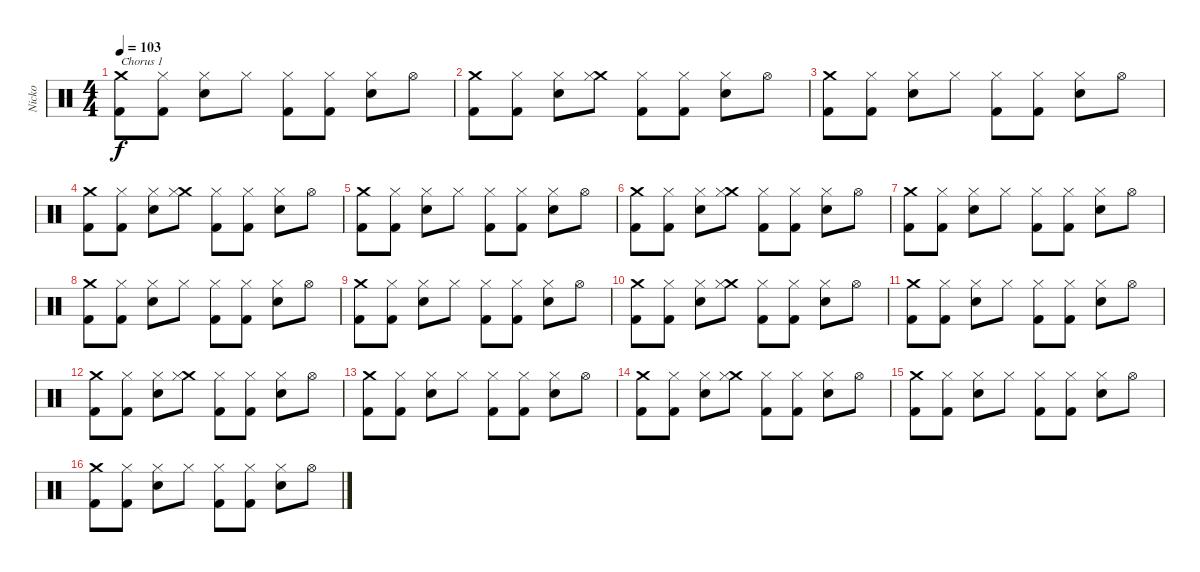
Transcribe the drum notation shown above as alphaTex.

\track ("Nicko" "Nicko") {instrument percussion}
\staff {score}
\articulation defaults
\ts (4 4)
\tempo 103
\clef neutral
\ks c
("Crash medium (hit)" "Kick (hit) 2").8{txt "Chorus 1" dy f} ("Hi-Hat (closed)" "Kick (hit) 2").8 ("Hi-Hat (closed)" "Snare (hit) 2").8 "Hi-Hat (closed)".8 ("Hi-Hat (closed)" "Kick (hit) 2").8 ("Hi-Hat (closed)" "Kick (hit) 2").8 ("Hi-Hat (closed)" "Snare (hit) 2").8 "Hi-Hat (open)".8 |
("Crash medium (hit)" "Kick (hit) 2").8 ("Hi-Hat (closed)" "Kick (hit) 2").8 ("Hi-Hat (closed)" "Snare (hit) 2").8 ("Crash medium (hit)" "Hi-Hat (closed)").8 ("Hi-Hat (closed)" "Kick (hit) 2").8 ("Hi-Hat (closed)" "Kick (hit) 2").8 ("Hi-Hat (closed)" "Snare (hit) 2").8 "Hi-Hat (open)".8 |
("Crash medium (hit)" "Kick (hit) 2").8 ("Hi-Hat (closed)" "Kick (hit) 2").8 ("Hi-Hat (closed)" "Snare (hit) 2").8 "Hi-Hat (closed)".8 ("Hi-Hat (closed)" "Kick (hit) 2").8 ("Hi-Hat (closed)" "Kick (hit) 2").8 ("Hi-Hat (closed)" "Snare (hit) 2").8 "Hi-Hat (open)".8 |
("Crash medium (hit)" "Kick (hit) 2").8 ("Hi-Hat (closed)" "Kick (hit) 2").8 ("Hi-Hat (closed)" "Snare (hit) 2").8 ("Crash medium (hit)" "Hi-Hat (closed)").8 ("Hi-Hat (closed)" "Kick (hit) 2").8 ("Hi-Hat (closed)" "Kick (hit) 2").8 ("Hi-Hat (closed)" "Snare (hit) 2").8 "Hi-Hat (open)".8 |
("Crash medium (hit)" "Kick (hit) 2").8 ("Hi-Hat (closed)" "Kick (hit) 2").8 ("Hi-Hat (closed)" "Snare (hit) 2").8 "Hi-Hat (closed)".8 ("Hi-Hat (closed)" "Kick (hit) 2").8 ("Hi-Hat (closed)" "Kick (hit) 2").8 ("Hi-Hat (closed)" "Snare (hit) 2").8 "Hi-Hat (open)".8 |
("Crash medium (hit)" "Kick (hit) 2").8 ("Hi-Hat (closed)" "Kick (hit) 2").8 ("Hi-Hat (closed)" "Snare (hit) 2").8 ("Crash medium (hit)" "Hi-Hat (closed)").8 ("Hi-Hat (closed)" "Kick (hit) 2").8 ("Hi-Hat (closed)" "Kick (hit) 2").8 ("Hi-Hat (closed)" "Snare (hit) 2").8 "Hi-Hat (open)".8 |
("Crash medium (hit)" "Kick (hit) 2").8 ("Hi-Hat (closed)" "Kick (hit) 2").8 ("Hi-Hat (closed)" "Snare (hit) 2").8 "Hi-Hat (closed)".8 ("Hi-Hat (closed)" "Kick (hit) 2").8 ("Hi-Hat (closed)" "Kick (hit) 2").8 ("Hi-Hat (closed)" "Snare (hit) 2").8 "Hi-Hat (open)".8 |
("Crash medium (hit)" "Kick (hit) 2").8 ("Hi-Hat (closed)" "Kick (hit) 2").8 ("Hi-Hat (closed)" "Snare (hit) 2").8 "Hi-Hat (closed)".8 ("Hi-Hat (closed)" "Kick (hit) 2").8 ("Hi-Hat (closed)" "Kick (hit) 2").8 ("Hi-Hat (closed)" "Snare (hit) 2").8 "Hi-Hat (open)".8 |
("Crash medium (hit)" "Kick (hit) 2").8 ("Hi-Hat (closed)" "Kick (hit) 2").8 ("Hi-Hat (closed)" "Snare (hit) 2").8 "Hi-Hat (closed)".8 ("Hi-Hat (closed)" "Kick (hit) 2").8 ("Hi-Hat (closed)" "Kick (hit) 2").8 ("Hi-Hat (closed)" "Snare (hit) 2").8 "Hi-Hat (open)".8 |
("Crash medium (hit)" "Kick (hit) 2").8 ("Hi-Hat (closed)" "Kick (hit) 2").8 ("Hi-Hat (closed)" "Snare (hit) 2").8 ("Crash medium (hit)" "Hi-Hat (closed)").8 ("Hi-Hat (closed)" "Kick (hit) 2").8 ("Hi-Hat (closed)" "Kick (hit) 2").8 ("Hi-Hat (closed)" "Snare (hit) 2").8 "Hi-Hat (open)".8 |
("Crash medium (hit)" "Kick (hit) 2").8 ("Hi-Hat (closed)" "Kick (hit) 2").8 ("Hi-Hat (closed)" "Snare (hit) 2").8 "Hi-Hat (closed)".8 ("Hi-Hat (closed)" "Kick (hit) 2").8 ("Hi-Hat (closed)" "Kick (hit) 2").8 ("Hi-Hat (closed)" "Snare (hit) 2").8 "Hi-Hat (open)".8 |
("Crash medium (hit)" "Kick (hit) 2").8 ("Hi-Hat (closed)" "Kick (hit) 2").8 ("Hi-Hat (closed)" "Snare (hit) 2").8 ("Crash medium (hit)" "Hi-Hat (closed)").8 ("Hi-Hat (closed)" "Kick (hit) 2").8 ("Hi-Hat (closed)" "Kick (hit) 2").8 ("Hi-Hat (closed)" "Snare (hit) 2").8 "Hi-Hat (open)".8 |
("Crash medium (hit)" "Kick (hit) 2").8 ("Hi-Hat (closed)" "Kick (hit) 2").8 ("Hi-Hat (closed)" "Snare (hit) 2").8 "Hi-Hat (closed)".8 ("Hi-Hat (closed)" "Kick (hit) 2").8 ("Hi-Hat (closed)" "Kick (hit) 2").8 ("Hi-Hat (closed)" "Snare (hit) 2").8 "Hi-Hat (open)".8 |
("Crash medium (hit)" "Kick (hit) 2").8 ("Hi-Hat (closed)" "Kick (hit) 2").8 ("Hi-Hat (closed)" "Snare (hit) 2").8 ("Crash medium (hit)" "Hi-Hat (closed)").8 ("Hi-Hat (closed)" "Kick (hit) 2").8 ("Hi-Hat (closed)" "Kick (hit) 2").8 ("Hi-Hat (closed)" "Snare (hit) 2").8 "Hi-Hat (open)".8 |
("Crash medium (hit)" "Kick (hit) 2").8 ("Hi-Hat (closed)" "Kick (hit) 2").8 ("Hi-Hat (closed)" "Snare (hit) 2").8 "Hi-Hat (closed)".8 ("Hi-Hat (closed)" "Kick (hit) 2").8 ("Hi-Hat (closed)" "Kick (hit) 2").8 ("Hi-Hat (closed)" "Snare (hit) 2").8 "Hi-Hat (open)".8 |
("Crash medium (hit)" "Kick (hit) 2").8 ("Hi-Hat (closed)" "Kick (hit) 2").8 ("Hi-Hat (closed)" "Snare (hit) 2").8 "Hi-Hat (closed)".8 ("Hi-Hat (closed)" "Kick (hit) 2").8 ("Hi-Hat (closed)" "Kick (hit) 2").8 ("Hi-Hat (closed)" "Snare (hit) 2").8 "Hi-Hat (open)".8
